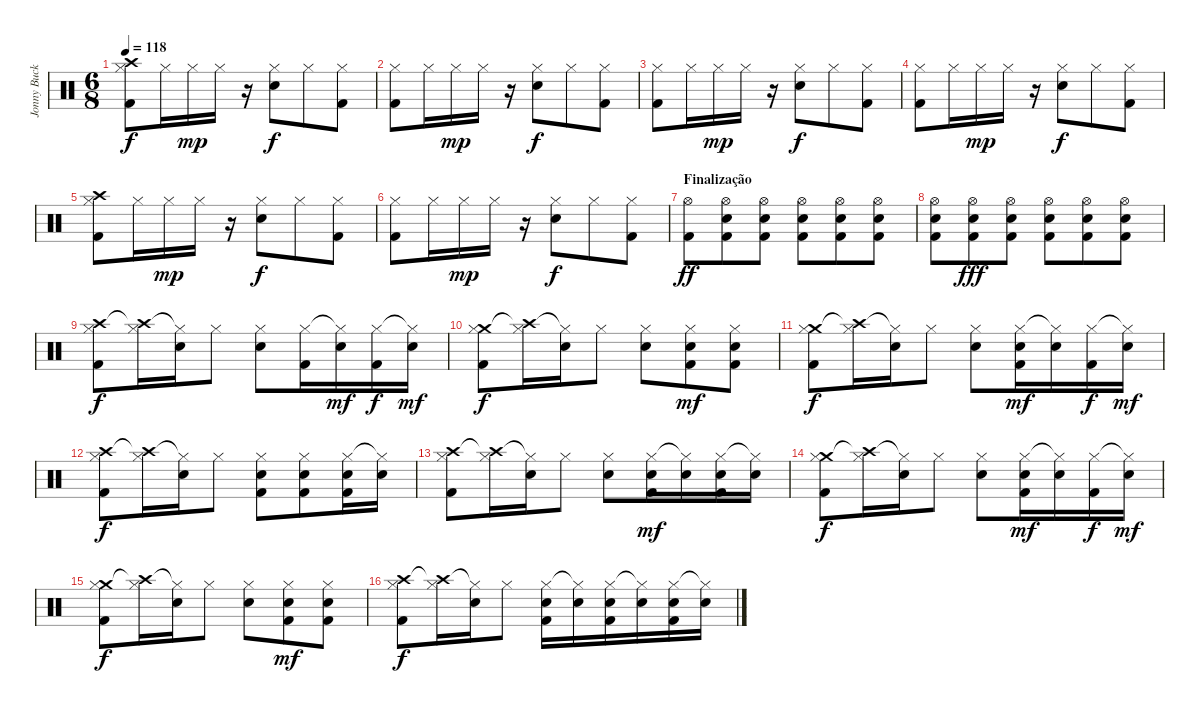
\track ("Jonny Buckland (batera)" "Jonny Buck") {instrument percussion}
\staff {score}
\articulation defaults
\ts (6 8)
\tempo 118
\clef neutral
\ks c
("Crash high (hit)" "Hi-Hat (closed)" "Kick (hit) 2").8{dy f} "Hi-Hat (closed)".16 "Hi-Hat (closed)".16{dy mp} "Hi-Hat (closed)".16 r.16 ("Hi-Hat (closed)" "Electric Snare (hit)").8{dy f} "Hi-Hat (closed)".8 ("Hi-Hat (closed)" "Kick (hit) 2").8 |
("Hi-Hat (closed)" "Kick (hit) 2").8 "Hi-Hat (closed)".16 "Hi-Hat (closed)".16{dy mp} "Hi-Hat (closed)".16 r.16 ("Hi-Hat (closed)" "Electric Snare (hit)").8{dy f} "Hi-Hat (closed)".8 ("Hi-Hat (closed)" "Kick (hit) 2").8 |
("Hi-Hat (closed)" "Kick (hit) 2").8 "Hi-Hat (closed)".16 "Hi-Hat (closed)".16{dy mp} "Hi-Hat (closed)".16 r.16 ("Hi-Hat (closed)" "Electric Snare (hit)").8{dy f} "Hi-Hat (closed)".8 ("Hi-Hat (closed)" "Kick (hit) 2").8 |
("Hi-Hat (closed)" "Kick (hit) 2").8 "Hi-Hat (closed)".16 "Hi-Hat (closed)".16{dy mp} "Hi-Hat (closed)".16 r.16 ("Hi-Hat (closed)" "Electric Snare (hit)").8{dy f} "Hi-Hat (closed)".8 ("Hi-Hat (closed)" "Kick (hit) 2").8 |
("Crash high (hit)" "Hi-Hat (closed)" "Kick (hit) 2").8 "Hi-Hat (closed)".16 "Hi-Hat (closed)".16{dy mp} "Hi-Hat (closed)".16 r.16 ("Hi-Hat (closed)" "Electric Snare (hit)").8{dy f} "Hi-Hat (closed)".8 ("Hi-Hat (closed)" "Kick (hit) 2").8 |
("Hi-Hat (closed)" "Kick (hit) 2").8 "Hi-Hat (closed)".16 "Hi-Hat (closed)".16{dy mp} "Hi-Hat (closed)".16 r.16 ("Hi-Hat (closed)" "Electric Snare (hit)").8{dy f} "Hi-Hat (closed)".8 ("Hi-Hat (closed)" "Kick (hit) 2").8 |
\section ("" "Finalização")
("Hi-Hat (open)" "Kick (hit) 2").8{dy ff} ("Hi-Hat (open)" "Electric Snare (hit)" "Kick (hit) 2").8 ("Hi-Hat (open)" "Electric Snare (hit)" "Kick (hit) 2").8 ("Hi-Hat (open)" "Electric Snare (hit)" "Kick (hit) 2").8 ("Hi-Hat (open)" "Electric Snare (hit)" "Kick (hit) 2").8 ("Hi-Hat (open)" "Electric Snare (hit)" "Kick (hit) 2").8 |
("Hi-Hat (open)" "Electric Snare (hit)" "Kick (hit) 2").8 ("Hi-Hat (open)" "Electric Snare (hit)" "Kick (hit) 2").8{dy fff} ("Hi-Hat (open)" "Electric Snare (hit)" "Kick (hit) 2").8 ("Hi-Hat (open)" "Electric Snare (hit)" "Kick (hit) 2").8 ("Hi-Hat (open)" "Electric Snare (hit)" "Kick (hit) 2").8 ("Hi-Hat (open)" "Electric Snare (hit)" "Kick (hit) 2").8 |
("Crash high (hit)" "Hi-Hat (closed)" "Kick (hit) 2").8{dy f} ("Crash high (hit)"{t} "Hi-Hat (closed)").16 ("Hi-Hat (closed)"{t} "Electric Snare (hit)").16 "Hi-Hat (closed)".8 ("Hi-Hat (closed)" "Electric Snare (hit)").8 ("Hi-Hat (closed)" "Kick (hit) 2").16 ("Hi-Hat (closed)"{t} "Snare (hit) 2").16{dy mf} ("Hi-Hat (closed)" "Kick (hit) 2").16{dy f} ("Hi-Hat (closed)"{t} "Snare (hit) 2").16{dy mf} |
("Crash medium (hit)" "Hi-Hat (closed)" "Kick (hit) 2").8{dy f} ("Crash high (hit)"{t} "Hi-Hat (closed)").16 ("Hi-Hat (closed)"{t} "Electric Snare (hit)").16 "Hi-Hat (closed)".8 ("Hi-Hat (closed)" "Electric Snare (hit)").8 ("Hi-Hat (closed)" "Snare (hit) 2" "Kick (hit) 2").8{dy mf} ("Hi-Hat (closed)" "Snare (hit) 2" "Kick (hit) 2").8 |
("Crash medium (hit)" "Hi-Hat (closed)" "Kick (hit) 2").8{dy f} ("Crash high (hit)"{t} "Hi-Hat (closed)").16 ("Hi-Hat (closed)"{t} "Electric Snare (hit)").16 "Hi-Hat (closed)".8 ("Hi-Hat (closed)" "Electric Snare (hit)").8 ("Hi-Hat (closed)" "Snare (hit) 2" "Kick (hit) 2").16{dy mf} ("Hi-Hat (closed)"{t} "Snare (hit) 2").16 ("Hi-Hat (closed)" "Kick (hit) 2").16{dy f} ("Hi-Hat (closed)"{t} "Snare (hit) 2").16{dy mf} |
("Crash high (hit)" "Hi-Hat (closed)" "Kick (hit) 2").8{dy f} ("Crash high (hit)"{t} "Hi-Hat (closed)").16 ("Hi-Hat (closed)"{t} "Electric Snare (hit)").16 "Hi-Hat (closed)".8 ("Hi-Hat (closed)" "Electric Snare (hit)" "Kick (hit) 2").8 ("Hi-Hat (closed)" "Electric Snare (hit)" "Kick (hit) 2").8 ("Hi-Hat (closed)" "Electric Snare (hit)" "Kick (hit) 2").16 ("Hi-Hat (closed)"{t} "Electric Snare (hit)").16 |
("Crash high (hit)" "Hi-Hat (closed)" "Kick (hit) 2").8 ("Crash high (hit)"{t} "Hi-Hat (closed)").16 ("Hi-Hat (closed)"{t} "Electric Snare (hit)").16 "Hi-Hat (closed)".8 ("Hi-Hat (closed)" "Electric Snare (hit)").8 ("Hi-Hat (closed)" "Snare (hit) 2" "Kick (hit) 2").16{dy mf} ("Hi-Hat (closed)"{t} "Snare (hit) 2").16 ("Hi-Hat (closed)" "Snare (hit) 2" "Kick (hit) 2").16 ("Hi-Hat (closed)"{t} "Snare (hit) 2").16 |
("Crash medium (hit)" "Hi-Hat (closed)" "Kick (hit) 2").8{dy f} ("Crash high (hit)"{t} "Hi-Hat (closed)").16 ("Hi-Hat (closed)"{t} "Electric Snare (hit)").16 "Hi-Hat (closed)".8 ("Hi-Hat (closed)" "Electric Snare (hit)").8 ("Hi-Hat (closed)" "Snare (hit) 2" "Kick (hit) 2").16{dy mf} ("Hi-Hat (closed)"{t} "Snare (hit) 2").16 ("Hi-Hat (closed)" "Kick (hit) 2").16{dy f} ("Hi-Hat (closed)"{t} "Snare (hit) 2").16{dy mf} |
("Crash medium (hit)" "Hi-Hat (closed)" "Kick (hit) 2").8{dy f} ("Crash high (hit)"{t} "Hi-Hat (closed)").16 ("Hi-Hat (closed)"{t} "Electric Snare (hit)").16 "Hi-Hat (closed)".8 ("Hi-Hat (closed)" "Electric Snare (hit)").8 ("Hi-Hat (closed)" "Snare (hit) 2" "Kick (hit) 2").8{dy mf} ("Hi-Hat (closed)" "Snare (hit) 2" "Kick (hit) 2").8 |
("Crash high (hit)" "Hi-Hat (closed)" "Kick (hit) 2").8{dy f} ("Crash high (hit)"{t} "Hi-Hat (closed)").16 ("Hi-Hat (closed)"{t} "Electric Snare (hit)").16 "Hi-Hat (closed)".8 ("Hi-Hat (closed)" "Electric Snare (hit)" "Kick (hit) 2").16 ("Hi-Hat (closed)"{t} "Electric Snare (hit)").16 ("Hi-Hat (closed)" "Electric Snare (hit)" "Kick (hit) 2").16 ("Hi-Hat (closed)"{t} "Electric Snare (hit)").16 ("Hi-Hat (closed)" "Snare (hit) 2" "Kick (hit) 2").16 ("Hi-Hat (closed)"{t} "Snare (hit) 2").16
